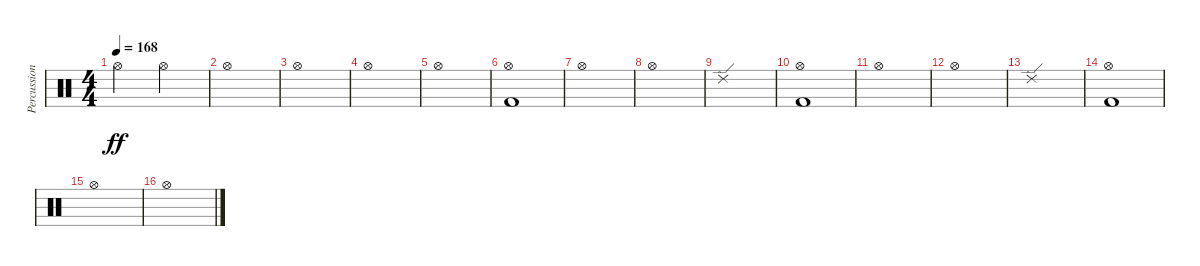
\track ("Percussions" "Percussion") {instrument percussion}
\staff {score}
\articulation defaults
\ts (4 4)
\tempo 168
\clef neutral
\ks c "Hi-Hat (open)".2{dy ff} "Hi-Hat (open)".2
|
"Hi-Hat (open)".1 |
"Hi-Hat (open)".1 |
"Hi-Hat (open)".1 |
"Hi-Hat (open)".1 |
("Kick (hit) 2" "Hi-Hat (open)").1 |
"Hi-Hat (open)".1 |
"Hi-Hat (open)".1 |
"Ride (edge) 2".1 |
("Kick (hit) 2" "Hi-Hat (open)").1 |
"Hi-Hat (open)".1 |
"Hi-Hat (open)".1 |
"Ride (edge) 2".1 |
("Kick (hit) 2" "Hi-Hat (open)").1 |
"Hi-Hat (open)".1 |
"Hi-Hat (open)".1
